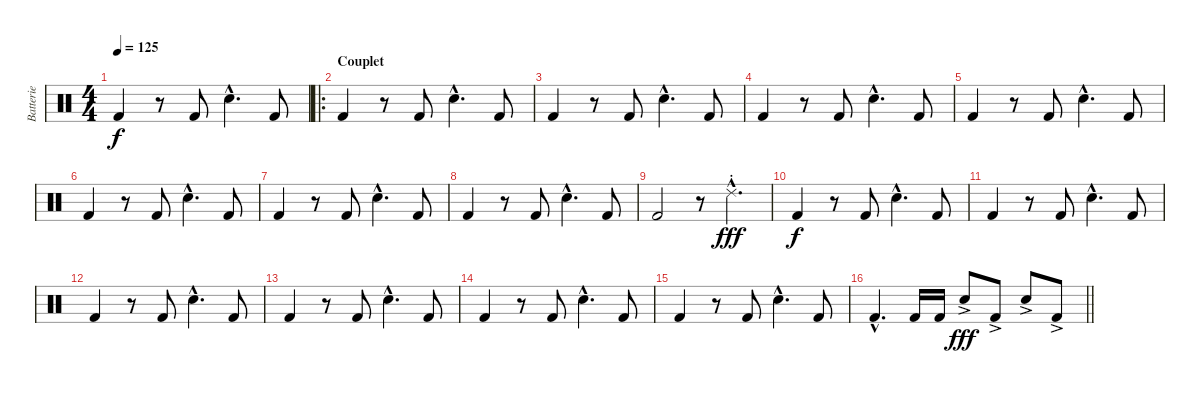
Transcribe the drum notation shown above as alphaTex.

\track ("Batterie" "Batterie") {instrument percussion}
\staff {score}
\articulation defaults
\ts (4 4)
\tempo 125
\clef neutral
\ks c "Kick (hit) 2".4{dy f}
r.8 "Kick (hit) 2".8 "Snare (hit) 2"{hac}.4{d} "Kick (hit) 2".8 |
\ro
\section ("" "Couplet")
"Kick (hit) 2".4 r.8 "Kick (hit) 2".8 "Snare (hit) 2"{hac}.4{d} "Kick (hit) 2".8 |
"Kick (hit) 2".4 r.8 "Kick (hit) 2".8 "Snare (hit) 2"{hac}.4{d} "Kick (hit) 2".8 |
"Kick (hit) 2".4 r.8 "Kick (hit) 2".8 "Snare (hit) 2"{hac}.4{d} "Kick (hit) 2".8 |
"Kick (hit) 2".4 r.8 "Kick (hit) 2".8 "Snare (hit) 2"{hac}.4{d} "Kick (hit) 2".8 |
"Kick (hit) 2".4 r.8 "Kick (hit) 2".8 "Snare (hit) 2"{hac}.4{d} "Kick (hit) 2".8 |
"Kick (hit) 2".4 r.8 "Kick (hit) 2".8 "Snare (hit) 2"{hac}.4{d} "Kick (hit) 2".8 |
"Kick (hit) 2".4 r.8 "Kick (hit) 2".8 "Snare (hit) 2"{hac}.4{d} "Kick (hit) 2".8 |
"Kick (hit) 2".2 r.8 "Ride (choke) 2"{hac}.4{d dy fff} |
"Kick (hit) 2".4{dy f} r.8 "Kick (hit) 2".8 "Snare (hit) 2"{hac}.4{d} "Kick (hit) 2".8 |
"Kick (hit) 2".4 r.8 "Kick (hit) 2".8 "Snare (hit) 2"{hac}.4{d} "Kick (hit) 2".8 |
"Kick (hit) 2".4 r.8 "Kick (hit) 2".8 "Snare (hit) 2"{hac}.4{d} "Kick (hit) 2".8 |
"Kick (hit) 2".4 r.8 "Kick (hit) 2".8 "Snare (hit) 2"{hac}.4{d} "Kick (hit) 2".8 |
"Kick (hit) 2".4 r.8 "Kick (hit) 2".8 "Snare (hit) 2"{hac}.4{d} "Kick (hit) 2".8 |
"Kick (hit) 2".4 r.8 "Kick (hit) 2".8 "Snare (hit) 2"{hac}.4{d} "Kick (hit) 2".8 |
\barLineRight lightlight "Kick (hit) 2"{hac}.4{d} "Kick (hit) 2".16 "Kick (hit) 2".16 "Electric Snare (hit)"{ac}.8{dy fff} "Kick (hit) 2"{ac}.8 "Electric Snare (hit)"{ac}.8 "Kick (hit) 2"{ac}.8
